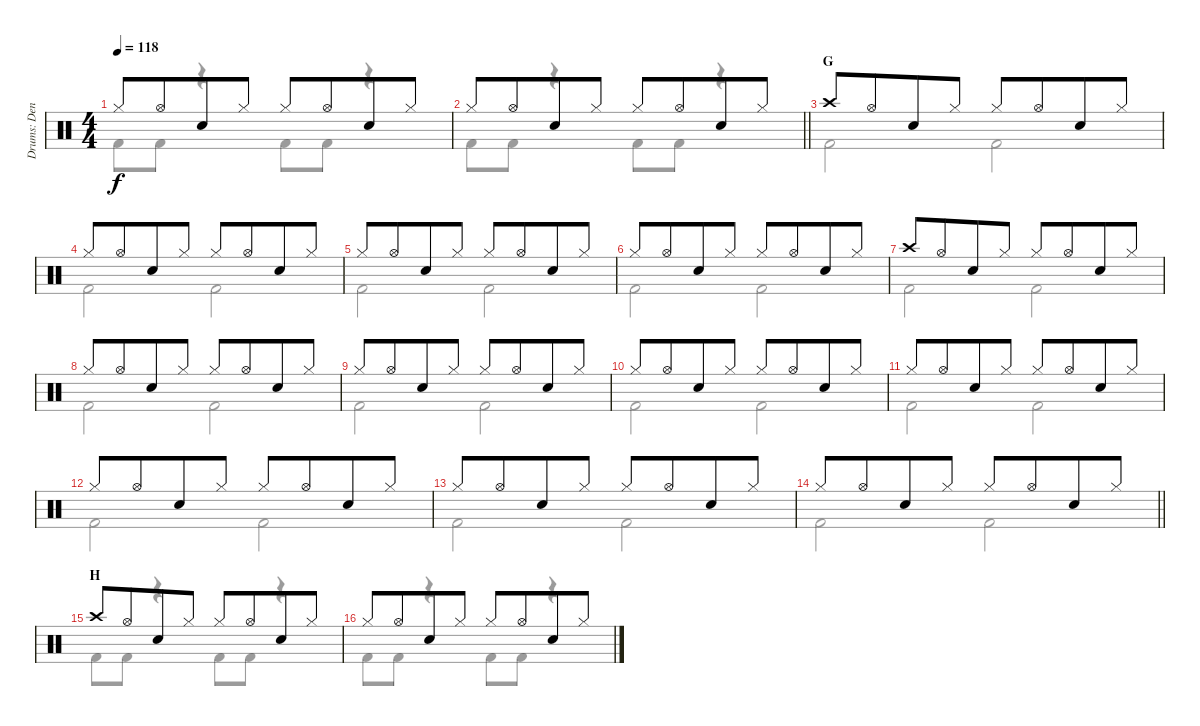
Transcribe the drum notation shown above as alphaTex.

\track ("Drums: Denny" "Drums: Den") {instrument percussion}
\staff {score}
\articulation defaults
\voice
\ts (4 4)
\tempo 118
\clef neutral
\ks c "Hi-Hat (closed)".8{dy f} "Hi-Hat (open)".8{beam merge} "Snare (hit) 2".8 "Hi-Hat (closed)".8 "Hi-Hat (closed)".8 "Hi-Hat (open)".8{beam merge} "Snare (hit) 2".8 "Hi-Hat (closed)".8
|
\barLineRight lightlight "Hi-Hat (closed)".8 "Hi-Hat (open)".8{beam merge} "Snare (hit) 2".8 "Hi-Hat (closed)".8 "Hi-Hat (closed)".8 "Hi-Hat (open)".8{beam merge} "Snare (hit) 2".8 "Hi-Hat (closed)".8
|
\section ("" "G")
"Crash high (hit)".8 "Hi-Hat (open)".8{beam merge} "Snare (hit) 2".8 "Hi-Hat (closed)".8 "Hi-Hat (closed)".8 "Hi-Hat (open)".8{beam merge} "Snare (hit) 2".8 "Hi-Hat (closed)".8 |
"Hi-Hat (closed)".8 "Hi-Hat (open)".8{beam merge} "Snare (hit) 2".8 "Hi-Hat (closed)".8 "Hi-Hat (closed)".8 "Hi-Hat (open)".8{beam merge} "Snare (hit) 2".8 "Hi-Hat (closed)".8 |
"Hi-Hat (closed)".8 "Hi-Hat (open)".8{beam merge} "Snare (hit) 2".8 "Hi-Hat (closed)".8 "Hi-Hat (closed)".8 "Hi-Hat (open)".8{beam merge} "Snare (hit) 2".8 "Hi-Hat (closed)".8 |
"Hi-Hat (closed)".8 "Hi-Hat (open)".8{beam merge} "Snare (hit) 2".8 "Hi-Hat (closed)".8 "Hi-Hat (closed)".8 "Hi-Hat (open)".8{beam merge} "Snare (hit) 2".8 "Hi-Hat (closed)".8 |
"Crash high (hit)".8 "Hi-Hat (open)".8{beam merge} "Snare (hit) 2".8 "Hi-Hat (closed)".8 "Hi-Hat (closed)".8 "Hi-Hat (open)".8{beam merge} "Snare (hit) 2".8 "Hi-Hat (closed)".8 |
"Hi-Hat (closed)".8 "Hi-Hat (open)".8{beam merge} "Snare (hit) 2".8 "Hi-Hat (closed)".8 "Hi-Hat (closed)".8 "Hi-Hat (open)".8{beam merge} "Snare (hit) 2".8 "Hi-Hat (closed)".8 |
"Hi-Hat (closed)".8 "Hi-Hat (open)".8{beam merge} "Snare (hit) 2".8 "Hi-Hat (closed)".8 "Hi-Hat (closed)".8 "Hi-Hat (open)".8{beam merge} "Snare (hit) 2".8 "Hi-Hat (closed)".8 |
"Hi-Hat (closed)".8 "Hi-Hat (open)".8{beam merge} "Snare (hit) 2".8 "Hi-Hat (closed)".8 "Hi-Hat (closed)".8 "Hi-Hat (open)".8{beam merge} "Snare (hit) 2".8 "Hi-Hat (closed)".8 |
"Hi-Hat (closed)".8 "Hi-Hat (open)".8{beam merge} "Snare (hit) 2".8 "Hi-Hat (closed)".8 "Hi-Hat (closed)".8 "Hi-Hat (open)".8{beam merge} "Snare (hit) 2".8 "Hi-Hat (closed)".8 |
"Hi-Hat (closed)".8 "Hi-Hat (open)".8{beam merge} "Snare (hit) 2".8 "Hi-Hat (closed)".8 "Hi-Hat (closed)".8 "Hi-Hat (open)".8{beam merge} "Snare (hit) 2".8 "Hi-Hat (closed)".8 |
"Hi-Hat (closed)".8 "Hi-Hat (open)".8{beam merge} "Snare (hit) 2".8 "Hi-Hat (closed)".8 "Hi-Hat (closed)".8 "Hi-Hat (open)".8{beam merge} "Snare (hit) 2".8 "Hi-Hat (closed)".8 |
\barLineRight lightlight "Hi-Hat (closed)".8 "Hi-Hat (open)".8{beam merge} "Snare (hit) 2".8 "Hi-Hat (closed)".8 "Hi-Hat (closed)".8 "Hi-Hat (open)".8{beam merge} "Snare (hit) 2".8 "Hi-Hat (closed)".8
|
\section ("" "H")
"Crash high (hit)".8 "Hi-Hat (open)".8{beam merge} "Snare (hit) 2".8 "Hi-Hat (closed)".8 "Hi-Hat (closed)".8 "Hi-Hat (open)".8{beam merge} "Snare (hit) 2".8 "Hi-Hat (closed)".8 |
"Hi-Hat (closed)".8 "Hi-Hat (open)".8{beam merge} "Snare (hit) 2".8 "Hi-Hat (closed)".8 "Hi-Hat (closed)".8 "Hi-Hat (open)".8{beam merge} "Snare (hit) 2".8 "Hi-Hat (closed)".8
\voice
\clef neutral
\ottava regular
\simile none
\ks c "Kick (hit) 2".8{dy f} "Kick (hit) 2".8
r.4 "Kick (hit) 2".8 "Kick (hit) 2".8 r.4 |
\barLineRight lightlight "Kick (hit) 2".8 "Kick (hit) 2".8
r.4 "Kick (hit) 2".8 "Kick (hit) 2".8 r.4 |
"Kick (hit) 2".2 "Kick (hit) 2".2 |
"Kick (hit) 2".2 "Kick (hit) 2".2 |
"Kick (hit) 2".2 "Kick (hit) 2".2 |
"Kick (hit) 2".2 "Kick (hit) 2".2 |
"Kick (hit) 2".2 "Kick (hit) 2".2 |
"Kick (hit) 2".2 "Kick (hit) 2".2 |
"Kick (hit) 2".2 "Kick (hit) 2".2 |
"Kick (hit) 2".2 "Kick (hit) 2".2 |
"Kick (hit) 2".2 "Kick (hit) 2".2 |
"Kick (hit) 2".2 "Kick (hit) 2".2 |
"Kick (hit) 2".2 "Kick (hit) 2".2 |
\barLineRight lightlight "Kick (hit) 2".2 "Kick (hit) 2".2
|
"Kick (hit) 2".8 "Kick (hit) 2".8 r.4 "Kick (hit) 2".8 "Kick (hit) 2".8 r.4 |
"Kick (hit) 2".8 "Kick (hit) 2".8 r.4 "Kick (hit) 2".8 "Kick (hit) 2".8 r.4
